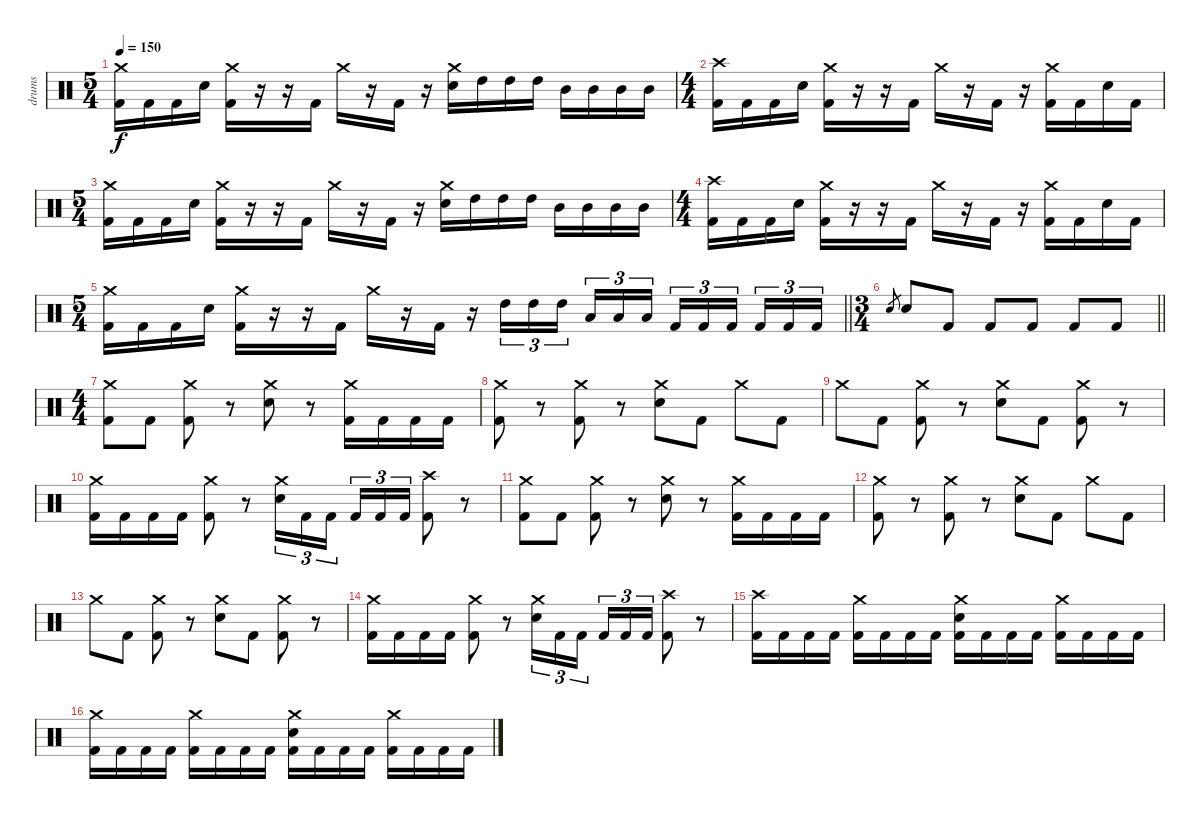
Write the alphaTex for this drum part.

\track ("drums" "drums") {instrument percussion}
\staff {score}
\articulation defaults
\ts (5 4)
\tempo 150
\clef neutral
\ks c
("Crash medium (hit)" "Kick (hit) 2").16{dy f} "Kick (hit) 2".16 "Kick (hit) 2".16 "Electric Snare (hit)".16 ("Crash medium (hit)" "Kick (hit) 2").16 r.16 r.16 "Kick (hit) 2".16 "Crash medium (hit)".16 r.16 "Kick (hit) 2".16 r.16 ("Crash medium (hit)" "Electric Snare (hit)").16 "High Tom (hit)".16 "High Tom (hit)".16 "High Tom (hit)".16 "Mid Tom (hit)".16 "Mid Tom (hit)".16 "Mid Tom (hit)".16 "Mid Tom (hit)".16 |
\ts (4 4)
("Crash high (hit)" "Kick (hit) 2").16 "Kick (hit) 2".16 "Kick (hit) 2".16 "Electric Snare (hit)".16 ("Crash medium (hit)" "Kick (hit) 2").16 r.16 r.16 "Kick (hit) 2".16 "Crash medium (hit)".16 r.16 "Kick (hit) 2".16 r.16 ("Crash medium (hit)" "Kick (hit) 2").16 "Kick (hit) 2".16 "Electric Snare (hit)".16 "Kick (hit) 2".16 |
\ts (5 4)
("Crash medium (hit)" "Kick (hit) 2").16 "Kick (hit) 2".16 "Kick (hit) 2".16 "Electric Snare (hit)".16 ("Crash medium (hit)" "Kick (hit) 2").16 r.16 r.16 "Kick (hit) 2".16 "Crash medium (hit)".16 r.16 "Kick (hit) 2".16 r.16 ("Crash medium (hit)" "Electric Snare (hit)").16 "High Tom (hit)".16 "High Tom (hit)".16 "High Tom (hit)".16 "Mid Tom (hit)".16 "Mid Tom (hit)".16 "Mid Tom (hit)".16 "Mid Tom (hit)".16 |
\ts (4 4)
("Crash high (hit)" "Kick (hit) 2").16 "Kick (hit) 2".16 "Kick (hit) 2".16 "Electric Snare (hit)".16 ("Crash medium (hit)" "Kick (hit) 2").16 r.16 r.16 "Kick (hit) 2".16 "Crash medium (hit)".16 r.16 "Kick (hit) 2".16 r.16 ("Crash medium (hit)" "Kick (hit) 2").16 "Kick (hit) 2".16 "Electric Snare (hit)".16 "Kick (hit) 2".16 |
\ts (5 4)
\barLineRight lightlight
("Crash medium (hit)" "Kick (hit) 2").16 "Kick (hit) 2".16 "Kick (hit) 2".16 "Electric Snare (hit)".16 ("Crash medium (hit)" "Kick (hit) 2").16 r.16 r.16 "Kick (hit) 2".16 "Crash medium (hit)".16 r.16 "Kick (hit) 2".16 r.16 "High Tom (hit)".16{tu (3 2)} "High Tom (hit)".16{tu (3 2)} "High Tom (hit)".16{tu (3 2)} "Low Tom (hit)".16{tu (3 2)} "Low Tom (hit)".16{tu (3 2)} "Low Tom (hit)".16{tu (3 2)} "Kick (hit) 2".16{tu (3 2)} "Kick (hit) 2".16{tu (3 2)} "Kick (hit) 2".16{tu (3 2)} "Kick (hit) 2".16{tu (3 2)} "Kick (hit) 2".16{tu (3 2)} "Kick (hit) 2".16{tu (3 2)} |
\ts (3 4)
\barLineRight lightlight "Electric Snare (hit)".8{gr} "Electric Snare (hit)".8 "Kick (hit) 2".8 "Kick (hit) 2".8 "Kick (hit) 2".8 "Kick (hit) 2".8 "Kick (hit) 2".8
|
\ts (4 4)
\section ("" "")
("Crash medium (hit)" "Kick (hit) 2").8 "Kick (hit) 2".8 ("Crash medium (hit)" "Kick (hit) 2").8 r.8 ("Crash medium (hit)" "Electric Snare (hit)").8 r.8 ("Crash medium (hit)" "Kick (hit) 2").16 "Kick (hit) 2".16 "Kick (hit) 2".16 "Kick (hit) 2".16 |
("Crash medium (hit)" "Kick (hit) 2").8 r.8 ("Crash medium (hit)" "Kick (hit) 2").8 r.8 ("Crash medium (hit)" "Electric Snare (hit)").8 "Kick (hit) 2".8 "Crash medium (hit)".8 "Kick (hit) 2".8 |
"Crash medium (hit)".8 "Kick (hit) 2".8 ("Crash medium (hit)" "Kick (hit) 2").8 r.8 ("Crash medium (hit)" "Electric Snare (hit)").8 "Kick (hit) 2".8 ("Crash medium (hit)" "Kick (hit) 2").8 r.8 |
("Crash medium (hit)" "Kick (hit) 2").16 "Kick (hit) 2".16 "Kick (hit) 2".16 "Kick (hit) 2".16 ("Crash medium (hit)" "Kick (hit) 2").8 r.8 ("Crash medium (hit)" "Electric Snare (hit)").16{tu (3 2)} "Kick (hit) 2".16{tu (3 2)} "Kick (hit) 2".16{tu (3 2)} "Kick (hit) 2".16{tu (3 2)} "Kick (hit) 2".16{tu (3 2)} "Kick (hit) 2".16{tu (3 2)} ("Crash high (hit)" "Kick (hit) 2").8 r.8 |
("Crash medium (hit)" "Kick (hit) 2").8 "Kick (hit) 2".8 ("Crash medium (hit)" "Kick (hit) 2").8 r.8 ("Crash medium (hit)" "Electric Snare (hit)").8 r.8 ("Crash medium (hit)" "Kick (hit) 2").16 "Kick (hit) 2".16 "Kick (hit) 2".16 "Kick (hit) 2".16 |
("Crash medium (hit)" "Kick (hit) 2").8 r.8 ("Crash medium (hit)" "Kick (hit) 2").8 r.8 ("Crash medium (hit)" "Electric Snare (hit)").8 "Kick (hit) 2".8 "Crash medium (hit)".8 "Kick (hit) 2".8 |
"Crash medium (hit)".8 "Kick (hit) 2".8 ("Crash medium (hit)" "Kick (hit) 2").8 r.8 ("Crash medium (hit)" "Electric Snare (hit)").8 "Kick (hit) 2".8 ("Crash medium (hit)" "Kick (hit) 2").8 r.8 |
("Crash medium (hit)" "Kick (hit) 2").16 "Kick (hit) 2".16 "Kick (hit) 2".16 "Kick (hit) 2".16 ("Crash medium (hit)" "Kick (hit) 2").8 r.8 ("Crash medium (hit)" "Electric Snare (hit)").16{tu (3 2)} "Kick (hit) 2".16{tu (3 2)} "Kick (hit) 2".16{tu (3 2)} "Kick (hit) 2".16{tu (3 2)} "Kick (hit) 2".16{tu (3 2)} "Kick (hit) 2".16{tu (3 2)} ("Crash high (hit)" "Kick (hit) 2").8 r.8 |
("Crash high (hit)" "Kick (hit) 2").16 "Kick (hit) 2".16 "Kick (hit) 2".16 "Kick (hit) 2".16 ("Crash medium (hit)" "Kick (hit) 2").16 "Kick (hit) 2".16 "Kick (hit) 2".16 "Kick (hit) 2".16 ("Crash medium (hit)" "Electric Snare (hit)" "Kick (hit) 2").16 "Kick (hit) 2".16 "Kick (hit) 2".16 "Kick (hit) 2".16 ("Crash medium (hit)" "Kick (hit) 2").16 "Kick (hit) 2".16 "Kick (hit) 2".16 "Kick (hit) 2".16 |
("Crash medium (hit)" "Kick (hit) 2").16 "Kick (hit) 2".16 "Kick (hit) 2".16 "Kick (hit) 2".16 ("Crash medium (hit)" "Kick (hit) 2").16 "Kick (hit) 2".16 "Kick (hit) 2".16 "Kick (hit) 2".16 ("Crash medium (hit)" "Electric Snare (hit)" "Kick (hit) 2").16 "Kick (hit) 2".16 "Kick (hit) 2".16 "Kick (hit) 2".16 ("Crash medium (hit)" "Kick (hit) 2").16 "Kick (hit) 2".16 "Kick (hit) 2".16 "Kick (hit) 2".16
